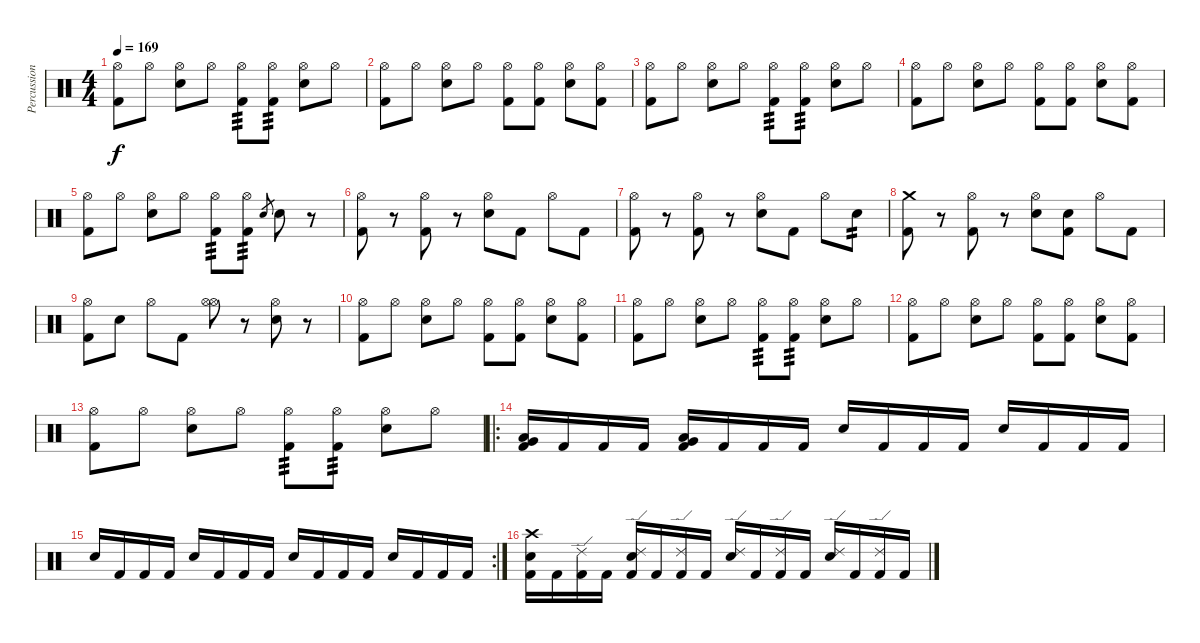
\track ("Percussion" "Percussion") {instrument percussion}
\staff {score}
\articulation defaults
\ts (4 4)
\tempo 169
\clef neutral
\ks c
("Hi-Hat (open)" "Kick (hit) 2").8{dy f} "Hi-Hat (open)".8 ("Hi-Hat (open)" "Electric Snare (hit)").8 "Hi-Hat (open)".8 ("Hi-Hat (open)" "Kick (hit) 2").8{tp 3} ("Hi-Hat (open)" "Kick (hit) 2").8{tp 3} ("Hi-Hat (open)" "Electric Snare (hit)").8 "Hi-Hat (open)".8 |
("Hi-Hat (open)" "Kick (hit) 2").8 "Hi-Hat (open)".8 ("Hi-Hat (open)" "Electric Snare (hit)").8 "Hi-Hat (open)".8 ("Hi-Hat (open)" "Kick (hit) 2").8 ("Hi-Hat (open)" "Kick (hit) 2").8 ("Hi-Hat (open)" "Electric Snare (hit)").8 ("Hi-Hat (open)" "Kick (hit) 2").8 |
("Hi-Hat (open)" "Kick (hit) 2").8 "Hi-Hat (open)".8 ("Hi-Hat (open)" "Electric Snare (hit)").8 "Hi-Hat (open)".8 ("Hi-Hat (open)" "Kick (hit) 2").8{tp 3} ("Hi-Hat (open)" "Kick (hit) 2").8{tp 3} ("Hi-Hat (open)" "Electric Snare (hit)").8 "Hi-Hat (open)".8 |
("Hi-Hat (open)" "Kick (hit) 2").8 "Hi-Hat (open)".8 ("Hi-Hat (open)" "Electric Snare (hit)").8 "Hi-Hat (open)".8 ("Hi-Hat (open)" "Kick (hit) 2").8 ("Hi-Hat (open)" "Kick (hit) 2").8 ("Hi-Hat (open)" "Electric Snare (hit)").8 ("Hi-Hat (open)" "Kick (hit) 2").8 |
("Hi-Hat (open)" "Kick (hit) 2").8 "Hi-Hat (open)".8 ("Hi-Hat (open)" "Electric Snare (hit)").8 "Hi-Hat (open)".8 ("Hi-Hat (open)" "Kick (hit) 2").8{tp 3} ("Hi-Hat (open)" "Kick (hit) 2").8{tp 3} "Electric Snare (hit)".8{gr} "Electric Snare (hit)".8 r.8 |
("Hi-Hat (open)" "Kick (hit) 2").8 r.8 ("Hi-Hat (open)" "Kick (hit) 2").8 r.8 ("Hi-Hat (open)" "Electric Snare (hit)").8 "Kick (hit) 2".8 "Hi-Hat (open)".8 "Kick (hit) 2".8 |
("Hi-Hat (open)" "Kick (hit) 2").8 r.8 ("Hi-Hat (open)" "Kick (hit) 2").8 r.8 ("Hi-Hat (open)" "Electric Snare (hit)").8 "Kick (hit) 2".8 "Hi-Hat (open)".8 "Electric Snare (hit)".8{tp 2} |
("Crash medium (hit)" "Kick (hit) 2").8 r.8 ("Hi-Hat (open)" "Kick (hit) 2").8 r.8 ("Hi-Hat (open)" "Electric Snare (hit)").8 ("Electric Snare (hit)" "Kick (hit) 2").8 "Hi-Hat (open)".8 "Kick (hit) 2".8 |
("Hi-Hat (open)" "Kick (hit) 2").8 "Electric Snare (hit)".8 "Hi-Hat (open)".8 "Kick (hit) 2".8 ("Hi-Hat (open)" "Hi-Hat (open)").8 r.8 ("Hi-Hat (open)" "Electric Snare (hit)").8 r.8 |
("Hi-Hat (open)" "Kick (hit) 2").8 "Hi-Hat (open)".8 ("Hi-Hat (open)" "Electric Snare (hit)").8 "Hi-Hat (open)".8 ("Hi-Hat (open)" "Kick (hit) 2").8 ("Hi-Hat (open)" "Kick (hit) 2").8 ("Hi-Hat (open)" "Electric Snare (hit)").8 ("Hi-Hat (open)" "Kick (hit) 2").8 |
("Hi-Hat (open)" "Kick (hit) 2").8 "Hi-Hat (open)".8 ("Hi-Hat (open)" "Electric Snare (hit)").8 "Hi-Hat (open)".8 ("Hi-Hat (open)" "Kick (hit) 2").8{tp 3} ("Hi-Hat (open)" "Kick (hit) 2").8{tp 3} ("Hi-Hat (open)" "Electric Snare (hit)").8 "Hi-Hat (open)".8 |
("Hi-Hat (open)" "Kick (hit) 2").8 "Hi-Hat (open)".8 ("Hi-Hat (open)" "Electric Snare (hit)").8 "Hi-Hat (open)".8 ("Hi-Hat (open)" "Kick (hit) 2").8 ("Hi-Hat (open)" "Kick (hit) 2").8 ("Hi-Hat (open)" "Electric Snare (hit)").8 ("Hi-Hat (open)" "Kick (hit) 2").8 |
("Hi-Hat (open)" "Kick (hit) 2").8 "Hi-Hat (open)".8 ("Hi-Hat (open)" "Electric Snare (hit)").8 "Hi-Hat (open)".8 ("Hi-Hat (open)" "Kick (hit) 2").8{tp 3} ("Hi-Hat (open)" "Kick (hit) 2").8{tp 3} ("Hi-Hat (open)" "Electric Snare (hit)").8 "Hi-Hat (open)".8 |
\ro
("Very Low Tom (hit)" "Low Tom (hit)" "Kick (hit) 2").16 "Kick (hit) 2".16 "Kick (hit) 2".16 "Kick (hit) 2".16 ("Very Low Tom (hit)" "Low Tom (hit)" "Kick (hit) 2").16 "Kick (hit) 2".16 "Kick (hit) 2".16 "Kick (hit) 2".16 "Electric Snare (hit)".16 "Kick (hit) 2".16 "Kick (hit) 2".16 "Kick (hit) 2".16 "Electric Snare (hit)".16 "Kick (hit) 2".16 "Kick (hit) 2".16 "Kick (hit) 2".16 |
\rc 2 "Electric Snare (hit)".16 "Kick (hit) 2".16 "Kick (hit) 2".16 "Kick (hit) 2".16 "Electric Snare (hit)".16 "Kick (hit) 2".16 "Kick (hit) 2".16 "Kick (hit) 2".16 "Electric Snare (hit)".16 "Kick (hit) 2".16 "Kick (hit) 2".16 "Kick (hit) 2".16 "Electric Snare (hit)".16 "Kick (hit) 2".16 "Kick (hit) 2".16 "Kick (hit) 2".16
|
("Crash high (hit)" "Electric Snare (hit)" "Kick (hit) 2").16 "Kick (hit) 2".16 ("Ride (edge) 2" "Kick (hit) 2").16 "Kick (hit) 2".16 ("Ride (edge) 2" "Electric Snare (hit)" "Kick (hit) 2").16 "Kick (hit) 2".16 ("Ride (edge) 2" "Kick (hit) 2").16 "Kick (hit) 2".16 ("Ride (edge) 2" "Electric Snare (hit)").16 "Kick (hit) 2".16 ("Ride (edge) 2" "Kick (hit) 2").16 "Kick (hit) 2".16 ("Ride (edge) 2" "Electric Snare (hit)").16 "Kick (hit) 2".16 ("Ride (edge) 2" "Kick (hit) 2").16 "Kick (hit) 2".16
